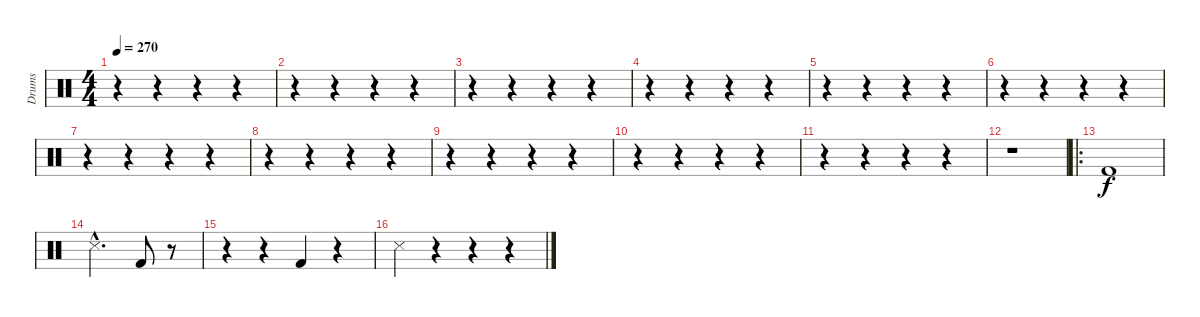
\track ("Drums" "Drums") {instrument percussion}
\staff {score}
\articulation defaults
\ts (4 4)
\tempo 270
\clef neutral
\ks c
r.4{dy f} r.4 r.4 r.4 |
r.4 r.4 r.4 r.4 |
r.4 r.4 r.4 r.4 |
r.4 r.4 r.4 r.4 |
r.4 r.4 r.4 r.4 |
r.4 r.4 r.4 r.4 |
r.4 r.4 r.4 r.4 |
r.4 r.4 r.4 r.4 |
r.4 r.4 r.4 r.4 |
r.4 r.4 r.4 r.4 |
r.4 r.4 r.4 r.4 |
r.1 |
\ro "Kick (hit) 2".1
|
"Snare (side stick) 3"{hac}.2{d} "Kick (hit) 2".8 r.8 |
r.4 r.4 "Kick (hit) 2".4 r.4 |
"Snare (side stick) 3".4 r.4 r.4 r.4
